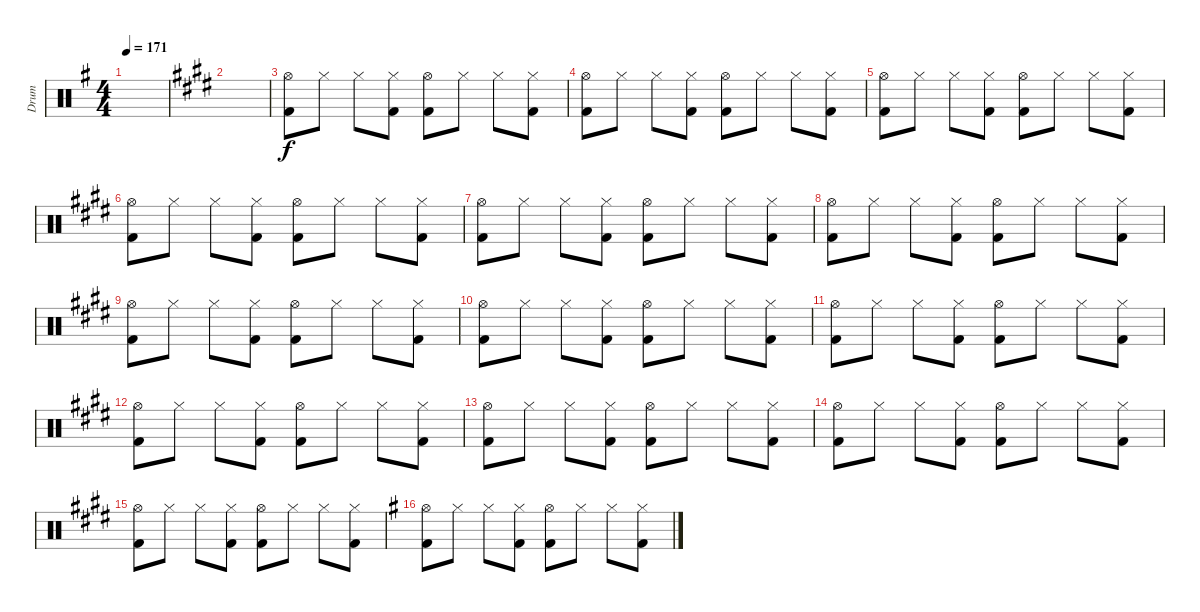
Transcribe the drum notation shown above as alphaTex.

\track ("Drum" "Drum") {instrument percussion}
\staff {score}
\articulation defaults
\ts (4 4)
\tempo 171
\clef neutral
\ks g
|
\ks e
|
\ks c#minor
("Hi-Hat (open)" "Kick (hit) 2").8 "Hi-Hat (closed)".8 "Hi-Hat (closed)".8 ("Hi-Hat (closed)" "Kick (hit) 2").8 ("Hi-Hat (open)" "Kick (hit) 2").8 "Hi-Hat (closed)".8 "Hi-Hat (closed)".8 ("Hi-Hat (closed)" "Kick (hit) 2").8 |
("Hi-Hat (open)" "Kick (hit) 2").8 "Hi-Hat (closed)".8 "Hi-Hat (closed)".8 ("Hi-Hat (closed)" "Kick (hit) 2").8 ("Hi-Hat (open)" "Kick (hit) 2").8 "Hi-Hat (closed)".8 "Hi-Hat (closed)".8 ("Hi-Hat (closed)" "Kick (hit) 2").8 |
("Hi-Hat (open)" "Kick (hit) 2").8 "Hi-Hat (closed)".8 "Hi-Hat (closed)".8 ("Hi-Hat (closed)" "Kick (hit) 2").8 ("Hi-Hat (open)" "Kick (hit) 2").8 "Hi-Hat (closed)".8 "Hi-Hat (closed)".8 ("Hi-Hat (closed)" "Kick (hit) 2").8 |
\ks e
("Hi-Hat (open)" "Kick (hit) 2").8 "Hi-Hat (closed)".8 "Hi-Hat (closed)".8 ("Hi-Hat (closed)" "Kick (hit) 2").8 ("Hi-Hat (open)" "Kick (hit) 2").8 "Hi-Hat (closed)".8 "Hi-Hat (closed)".8 ("Hi-Hat (closed)" "Kick (hit) 2").8 |
\ks c#minor
("Hi-Hat (open)" "Kick (hit) 2").8 "Hi-Hat (closed)".8 "Hi-Hat (closed)".8 ("Hi-Hat (closed)" "Kick (hit) 2").8 ("Hi-Hat (open)" "Kick (hit) 2").8 "Hi-Hat (closed)".8 "Hi-Hat (closed)".8 ("Hi-Hat (closed)" "Kick (hit) 2").8 |
("Hi-Hat (open)" "Kick (hit) 2").8 "Hi-Hat (closed)".8 "Hi-Hat (closed)".8 ("Hi-Hat (closed)" "Kick (hit) 2").8 ("Hi-Hat (open)" "Kick (hit) 2").8 "Hi-Hat (closed)".8 "Hi-Hat (closed)".8 ("Hi-Hat (closed)" "Kick (hit) 2").8 |
("Hi-Hat (open)" "Kick (hit) 2").8 "Hi-Hat (closed)".8 "Hi-Hat (closed)".8 ("Hi-Hat (closed)" "Kick (hit) 2").8 ("Hi-Hat (open)" "Kick (hit) 2").8 "Hi-Hat (closed)".8 "Hi-Hat (closed)".8 ("Hi-Hat (closed)" "Kick (hit) 2").8 |
\ks e
("Hi-Hat (open)" "Kick (hit) 2").8 "Hi-Hat (closed)".8 "Hi-Hat (closed)".8 ("Hi-Hat (closed)" "Kick (hit) 2").8 ("Hi-Hat (open)" "Kick (hit) 2").8 "Hi-Hat (closed)".8 "Hi-Hat (closed)".8 ("Hi-Hat (closed)" "Kick (hit) 2").8 |
\ks c#minor
("Hi-Hat (open)" "Kick (hit) 2").8 "Hi-Hat (closed)".8 "Hi-Hat (closed)".8 ("Hi-Hat (closed)" "Kick (hit) 2").8 ("Hi-Hat (open)" "Kick (hit) 2").8 "Hi-Hat (closed)".8 "Hi-Hat (closed)".8 ("Hi-Hat (closed)" "Kick (hit) 2").8 |
("Hi-Hat (open)" "Kick (hit) 2").8 "Hi-Hat (closed)".8 "Hi-Hat (closed)".8 ("Hi-Hat (closed)" "Kick (hit) 2").8 ("Hi-Hat (open)" "Kick (hit) 2").8 "Hi-Hat (closed)".8 "Hi-Hat (closed)".8 ("Hi-Hat (closed)" "Kick (hit) 2").8 |
("Hi-Hat (open)" "Kick (hit) 2").8 "Hi-Hat (closed)".8 "Hi-Hat (closed)".8 ("Hi-Hat (closed)" "Kick (hit) 2").8 ("Hi-Hat (open)" "Kick (hit) 2").8 "Hi-Hat (closed)".8 "Hi-Hat (closed)".8 ("Hi-Hat (closed)" "Kick (hit) 2").8 |
("Hi-Hat (open)" "Kick (hit) 2").8 "Hi-Hat (closed)".8 "Hi-Hat (closed)".8 ("Hi-Hat (closed)" "Kick (hit) 2").8 ("Hi-Hat (open)" "Kick (hit) 2").8 "Hi-Hat (closed)".8 "Hi-Hat (closed)".8 ("Hi-Hat (closed)" "Kick (hit) 2").8 |
("Hi-Hat (open)" "Kick (hit) 2").8 "Hi-Hat (closed)".8 "Hi-Hat (closed)".8 ("Hi-Hat (closed)" "Kick (hit) 2").8 ("Hi-Hat (open)" "Kick (hit) 2").8 "Hi-Hat (closed)".8 "Hi-Hat (closed)".8 ("Hi-Hat (closed)" "Kick (hit) 2").8 |
\ks g
("Hi-Hat (open)" "Kick (hit) 2").8 "Hi-Hat (closed)".8 "Hi-Hat (closed)".8 ("Hi-Hat (closed)" "Kick (hit) 2").8 ("Hi-Hat (open)" "Kick (hit) 2").8 "Hi-Hat (closed)".8 "Hi-Hat (closed)".8 ("Hi-Hat (closed)" "Kick (hit) 2").8
